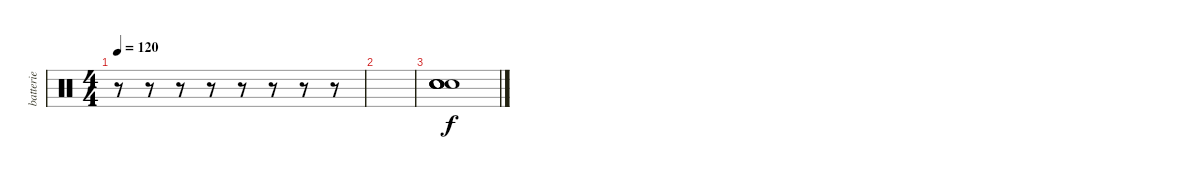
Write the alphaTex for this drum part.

\track ("batterie" "batterie") {instrument percussion}
\staff {score}
\articulation defaults
\ts (4 4)
\tempo 120
\clef neutral
\ks c
r.8{dy f} r.8 r.8 r.8 r.8 r.8 r.8 r.8 |
|
("Snare (hit)" "Snare (hit)" "Snare (hit)" "Snare (hit)" "Snare (hit)").1
